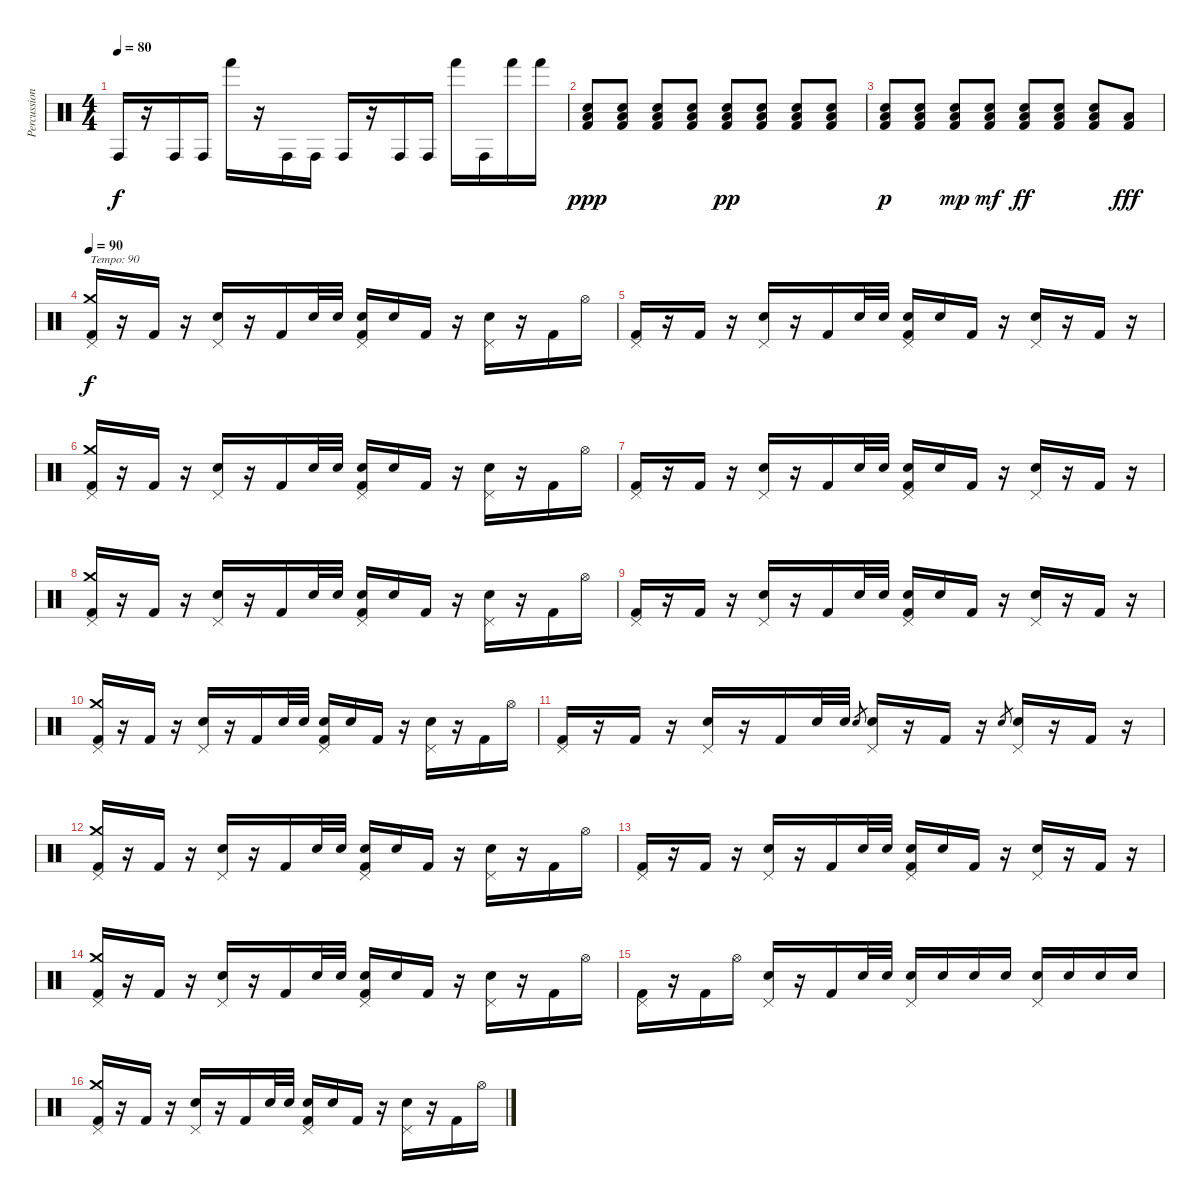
\track ("Percussion" "Percussion") {instrument percussion}
\staff {score}
\articulation defaults
\ts (4 4)
\tempo 80
\clef neutral
\ks c "Conga high (hit)".16{dy f}
r.16 "Conga high (hit)".16 "Conga high (hit)".16 "Hand (hit)".16 r.16 "Conga high (hit)".16 "Conga high (hit)".16 "Conga high (hit)".16 r.16 "Conga high (hit)".16 "Conga high (hit)".16 "Hand (hit)".16 "Conga high (hit)".16 "Hand (hit)".16 "Hand (hit)".16 |
("Low Floor Tom (hit)" "Snare (hit) 2" "Kick (hit) 2").8{dy ppp volume 13} ("Low Floor Tom (hit)" "Snare (hit) 2" "Kick (hit) 2").8 ("Low Floor Tom (hit)" "Snare (hit) 2" "Kick (hit) 2").8 ("Low Floor Tom (hit)" "Snare (hit) 2" "Kick (hit) 2").8 ("Low Floor Tom (hit)" "Snare (hit) 2" "Kick (hit) 2").8{dy pp} ("Low Floor Tom (hit)" "Snare (hit) 2" "Kick (hit) 2").8 ("Low Floor Tom (hit)" "Snare (hit) 2" "Kick (hit) 2").8 ("Low Floor Tom (hit)" "Snare (hit) 2" "Kick (hit) 2").8 |
("Low Floor Tom (hit)" "Snare (hit) 2" "Kick (hit) 2").8{dy p} ("Low Floor Tom (hit)" "Snare (hit) 2" "Kick (hit) 2").8 ("Low Floor Tom (hit)" "Snare (hit) 2" "Kick (hit) 2").8{dy mp} ("Low Floor Tom (hit)" "Snare (hit) 2" "Kick (hit) 2").8{dy mf} ("Low Floor Tom (hit)" "Snare (hit) 2" "Kick (hit) 2").8{dy ff} ("Low Floor Tom (hit)" "Snare (hit) 2" "Kick (hit) 2").8 ("Low Floor Tom (hit)" "Snare (hit) 2" "Kick (hit) 2").8 ("Low Floor Tom (hit)" "Kick (hit) 2").8{dy fff} |
\tempo 90
("Crash medium (hit)" "Pedal Hi-Hat (hit)" "Kick (hit) 2").16{txt "Tempo: 90" dy f} r.16 "Kick (hit) 2".16 r.16 ("Pedal Hi-Hat (hit)" "Snare (hit) 2").16 r.16 "Kick (hit) 2".16 "Snare (hit) 2".32 "Snare (hit) 2".32 ("Pedal Hi-Hat (hit)" "Snare (hit) 2" "Kick (hit) 2").16 "Snare (hit) 2".16 "Kick (hit) 2".16 r.16 ("Pedal Hi-Hat (hit)" "Snare (hit) 2").16 r.16 "Kick (hit) 2".16 "Hi-Hat (open)".16 |
("Pedal Hi-Hat (hit)" "Kick (hit) 2").16 r.16 "Kick (hit) 2".16 r.16 ("Pedal Hi-Hat (hit)" "Snare (hit) 2").16 r.16 "Kick (hit) 2".16 "Snare (hit) 2".32 "Snare (hit) 2".32 ("Pedal Hi-Hat (hit)" "Snare (hit) 2" "Kick (hit) 2").16 "Snare (hit) 2".16 "Kick (hit) 2".16 r.16 ("Pedal Hi-Hat (hit)" "Snare (hit) 2").16 r.16 "Kick (hit) 2".16 r.16 |
("Crash medium (hit)" "Pedal Hi-Hat (hit)" "Kick (hit) 2").16 r.16 "Kick (hit) 2".16 r.16 ("Pedal Hi-Hat (hit)" "Snare (hit) 2").16 r.16 "Kick (hit) 2".16 "Snare (hit) 2".32 "Snare (hit) 2".32 ("Pedal Hi-Hat (hit)" "Snare (hit) 2" "Kick (hit) 2").16 "Snare (hit) 2".16 "Kick (hit) 2".16 r.16 ("Pedal Hi-Hat (hit)" "Snare (hit) 2").16 r.16 "Kick (hit) 2".16 "Hi-Hat (open)".16 |
("Pedal Hi-Hat (hit)" "Kick (hit) 2").16 r.16 "Kick (hit) 2".16 r.16 ("Pedal Hi-Hat (hit)" "Snare (hit) 2").16 r.16 "Kick (hit) 2".16 "Snare (hit) 2".32 "Snare (hit) 2".32 ("Pedal Hi-Hat (hit)" "Snare (hit) 2" "Kick (hit) 2").16 "Snare (hit) 2".16 "Kick (hit) 2".16 r.16 ("Pedal Hi-Hat (hit)" "Snare (hit) 2").16 r.16 "Kick (hit) 2".16 r.16 |
("Crash medium (hit)" "Pedal Hi-Hat (hit)" "Kick (hit) 2").16 r.16 "Kick (hit) 2".16 r.16 ("Pedal Hi-Hat (hit)" "Snare (hit) 2").16 r.16 "Kick (hit) 2".16 "Snare (hit) 2".32 "Snare (hit) 2".32 ("Pedal Hi-Hat (hit)" "Snare (hit) 2" "Kick (hit) 2").16 "Snare (hit) 2".16 "Kick (hit) 2".16 r.16 ("Pedal Hi-Hat (hit)" "Snare (hit) 2").16 r.16 "Kick (hit) 2".16 "Hi-Hat (open)".16 |
("Pedal Hi-Hat (hit)" "Kick (hit) 2").16 r.16 "Kick (hit) 2".16 r.16 ("Pedal Hi-Hat (hit)" "Snare (hit) 2").16 r.16 "Kick (hit) 2".16 "Snare (hit) 2".32 "Snare (hit) 2".32 ("Pedal Hi-Hat (hit)" "Snare (hit) 2" "Kick (hit) 2").16 "Snare (hit) 2".16 "Kick (hit) 2".16 r.16 ("Pedal Hi-Hat (hit)" "Snare (hit) 2").16 r.16 "Kick (hit) 2".16 r.16 |
("Crash medium (hit)" "Pedal Hi-Hat (hit)" "Kick (hit) 2").16 r.16 "Kick (hit) 2".16 r.16 ("Pedal Hi-Hat (hit)" "Snare (hit) 2").16 r.16 "Kick (hit) 2".16 "Snare (hit) 2".32 "Snare (hit) 2".32 ("Pedal Hi-Hat (hit)" "Snare (hit) 2" "Kick (hit) 2").16 "Snare (hit) 2".16 "Kick (hit) 2".16 r.16 ("Pedal Hi-Hat (hit)" "Snare (hit) 2").16 r.16 "Kick (hit) 2".16 "Hi-Hat (open)".16 |
("Pedal Hi-Hat (hit)" "Kick (hit) 2").16 r.16 "Kick (hit) 2".16 r.16 ("Pedal Hi-Hat (hit)" "Snare (hit) 2").16 r.16 "Kick (hit) 2".16 "Snare (hit) 2".32 "Snare (hit) 2".32 "Snare (hit) 2".8{gr} ("Pedal Hi-Hat (hit)" "Snare (hit) 2").16 r.16 "Kick (hit) 2".16 r.16 "Snare (hit) 2".8{gr} ("Pedal Hi-Hat (hit)" "Snare (hit) 2").16 r.16 "Kick (hit) 2".16 r.16 |
("Crash medium (hit)" "Pedal Hi-Hat (hit)" "Kick (hit) 2").16 r.16 "Kick (hit) 2".16 r.16 ("Pedal Hi-Hat (hit)" "Snare (hit) 2").16 r.16 "Kick (hit) 2".16 "Snare (hit) 2".32 "Snare (hit) 2".32 ("Pedal Hi-Hat (hit)" "Snare (hit) 2" "Kick (hit) 2").16 "Snare (hit) 2".16 "Kick (hit) 2".16 r.16 ("Pedal Hi-Hat (hit)" "Snare (hit) 2").16 r.16 "Kick (hit) 2".16 "Hi-Hat (open)".16 |
("Pedal Hi-Hat (hit)" "Kick (hit) 2").16 r.16 "Kick (hit) 2".16 r.16 ("Pedal Hi-Hat (hit)" "Snare (hit) 2").16 r.16 "Kick (hit) 2".16 "Snare (hit) 2".32 "Snare (hit) 2".32 ("Pedal Hi-Hat (hit)" "Snare (hit) 2" "Kick (hit) 2").16 "Snare (hit) 2".16 "Kick (hit) 2".16 r.16 ("Pedal Hi-Hat (hit)" "Snare (hit) 2").16 r.16 "Kick (hit) 2".16 r.16 |
("Crash medium (hit)" "Pedal Hi-Hat (hit)" "Kick (hit) 2").16 r.16 "Kick (hit) 2".16 r.16 ("Pedal Hi-Hat (hit)" "Snare (hit) 2").16 r.16 "Kick (hit) 2".16 "Snare (hit) 2".32 "Snare (hit) 2".32 ("Pedal Hi-Hat (hit)" "Snare (hit) 2" "Kick (hit) 2").16 "Snare (hit) 2".16 "Kick (hit) 2".16 r.16 ("Pedal Hi-Hat (hit)" "Snare (hit) 2").16 r.16 "Kick (hit) 2".16 "Hi-Hat (open)".16 |
("Pedal Hi-Hat (hit)" "Kick (hit) 2").16 r.16 "Kick (hit) 2".16 "Hi-Hat (open)".16 ("Pedal Hi-Hat (hit)" "Snare (hit) 2").16 r.16 "Kick (hit) 2".16 "Snare (hit) 2".32 "Snare (hit) 2".32 ("Pedal Hi-Hat (hit)" "Snare (hit) 2").16 "Snare (hit) 2".16 "Snare (hit) 2".16 "Snare (hit) 2".16 ("Pedal Hi-Hat (hit)" "Snare (hit) 2").16 "Snare (hit) 2".16 "Snare (hit) 2".16 "Snare (hit) 2".16 |
("Crash medium (hit)" "Pedal Hi-Hat (hit)" "Kick (hit) 2").16 r.16 "Kick (hit) 2".16 r.16 ("Pedal Hi-Hat (hit)" "Snare (hit) 2").16 r.16 "Kick (hit) 2".16 "Snare (hit) 2".32 "Snare (hit) 2".32 ("Pedal Hi-Hat (hit)" "Snare (hit) 2" "Kick (hit) 2").16 "Snare (hit) 2".16 "Kick (hit) 2".16 r.16 ("Pedal Hi-Hat (hit)" "Snare (hit) 2").16 r.16 "Kick (hit) 2".16 "Hi-Hat (open)".16
